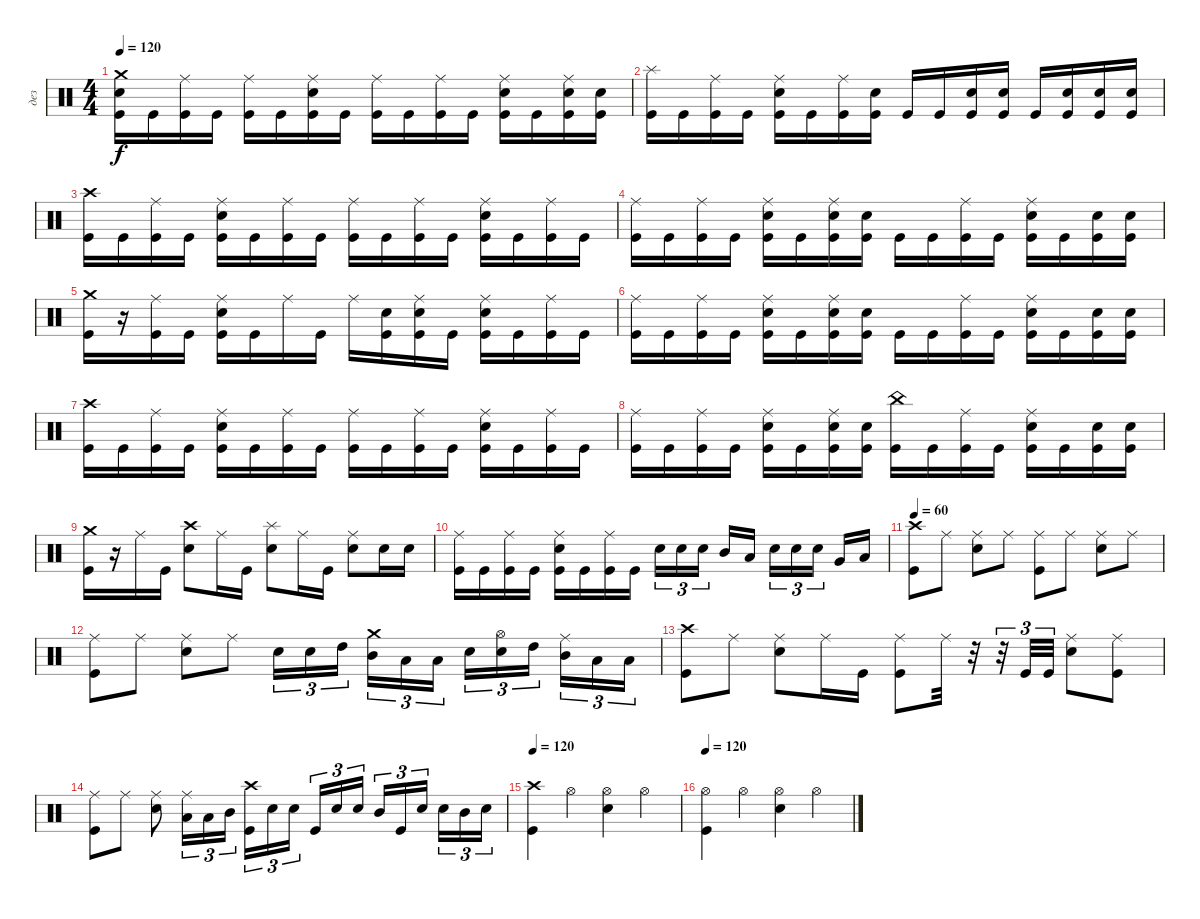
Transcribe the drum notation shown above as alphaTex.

\track ("дез" "дез") {instrument percussion}
\staff {score}
\articulation defaults
\ts (4 4)
\tempo 120
\clef neutral
\ks c
("Crash medium (hit)" "Electric Snare (hit)" "Kick (hit)").16{dy f} "Kick (hit)".16 ("Ride (middle)" "Kick (hit)").16 "Kick (hit)".16 ("Ride (middle)" "Kick (hit)").16 "Kick (hit)".16 ("Ride (middle)" "Electric Snare (hit)" "Kick (hit)").16 "Kick (hit)".16 ("Ride (middle)" "Kick (hit)").16 "Kick (hit)".16 ("Ride (middle)" "Kick (hit)").16 "Kick (hit)".16 ("Ride (middle)" "Electric Snare (hit)" "Kick (hit)").16 "Kick (hit)".16 ("Ride (middle)" "Electric Snare (hit)" "Kick (hit)").16 ("Electric Snare (hit)" "Kick (hit)").16 |
("Splash (hit)" "Kick (hit)").16 "Kick (hit)".16 ("Ride (middle)" "Kick (hit)").16 "Kick (hit)".16 ("Ride (middle)" "Electric Snare (hit)" "Kick (hit)").16 "Kick (hit)".16 ("Ride (middle)" "Kick (hit)").16 ("Electric Snare (hit)" "Kick (hit)").16 "Kick (hit)".16 "Kick (hit)".16 ("Electric Snare (hit)" "Kick (hit)").16 ("Electric Snare (hit)" "Kick (hit)").16 "Kick (hit)".16 ("Electric Snare (hit)" "Kick (hit)").16 ("Electric Snare (hit)" "Kick (hit)").16 ("Electric Snare (hit)" "Kick (hit)").16 |
("Crash high (hit)" "Kick (hit)").16 "Kick (hit)".16 ("Ride (middle)" "Kick (hit)").16 "Kick (hit)".16 ("Ride (middle)" "Electric Snare (hit)" "Kick (hit)").16 "Kick (hit)".16 ("Ride (middle)" "Kick (hit)").16 "Kick (hit)".16 ("Ride (middle)" "Kick (hit)").16 "Kick (hit)".16 ("Ride (middle)" "Kick (hit)").16 "Kick (hit)".16 ("Ride (middle)" "Electric Snare (hit)" "Kick (hit)").16 "Kick (hit)".16 ("Ride (middle)" "Kick (hit)").16 "Kick (hit)".16 |
("Ride (middle)" "Kick (hit)").16 "Kick (hit)".16 ("Ride (middle)" "Kick (hit)").16 "Kick (hit)".16 ("Ride (middle)" "Electric Snare (hit)" "Kick (hit)").16 "Kick (hit)".16 ("Ride (middle)" "Electric Snare (hit)" "Kick (hit)").16 ("Electric Snare (hit)" "Kick (hit)").16 "Kick (hit)".16 "Kick (hit)".16 ("Ride (middle)" "Kick (hit)").16 "Kick (hit)".16 ("Ride (middle)" "Electric Snare (hit)" "Kick (hit)").16 "Kick (hit)".16 ("Electric Snare (hit)" "Kick (hit)").16 ("Electric Snare (hit)" "Kick (hit)").16 |
("Crash medium (hit)" "Kick (hit)").16 r.16 ("Ride (middle)" "Kick (hit)").16 "Kick (hit)".16 ("Ride (middle)" "Electric Snare (hit)" "Kick (hit)").16 "Kick (hit)".16 "Ride (middle)".16 "Kick (hit)".16 "Ride (middle)".16 ("Electric Snare (hit)" "Kick (hit)").16 ("Ride (middle)" "Electric Snare (hit)" "Kick (hit)").16 "Kick (hit)".16 ("Ride (middle)" "Electric Snare (hit)" "Kick (hit)").16 "Kick (hit)".16 ("Ride (middle)" "Kick (hit)").16 "Kick (hit)".16 |
("Ride (middle)" "Kick (hit)").16 "Kick (hit)".16 ("Ride (middle)" "Kick (hit)").16 "Kick (hit)".16 ("Ride (middle)" "Electric Snare (hit)" "Kick (hit)").16 "Kick (hit)".16 ("Ride (middle)" "Electric Snare (hit)" "Kick (hit)").16 ("Electric Snare (hit)" "Kick (hit)").16 "Kick (hit)".16 "Kick (hit)".16 ("Ride (middle)" "Kick (hit)").16 "Kick (hit)".16 ("Ride (middle)" "Electric Snare (hit)" "Kick (hit)").16 "Kick (hit)".16 ("Electric Snare (hit)" "Kick (hit)").16 ("Electric Snare (hit)" "Kick (hit)").16 |
("Crash high (hit)" "Kick (hit)").16 "Kick (hit)".16 ("Ride (middle)" "Kick (hit)").16 "Kick (hit)".16 ("Ride (middle)" "Electric Snare (hit)" "Kick (hit)").16 "Kick (hit)".16 ("Ride (middle)" "Kick (hit)").16 "Kick (hit)".16 ("Ride (middle)" "Kick (hit)").16 "Kick (hit)".16 ("Ride (middle)" "Kick (hit)").16 "Kick (hit)".16 ("Ride (middle)" "Electric Snare (hit)" "Kick (hit)").16 "Kick (hit)".16 ("Ride (middle)" "Kick (hit)").16 "Kick (hit)".16 |
("Ride (middle)" "Kick (hit)").16 "Kick (hit)".16 ("Ride (middle)" "Kick (hit)").16 "Kick (hit)".16 ("Ride (middle)" "Electric Snare (hit)" "Kick (hit)").16 "Kick (hit)".16 ("Ride (middle)" "Electric Snare (hit)" "Kick (hit)").16 ("Electric Snare (hit)" "Kick (hit)").16 ("China (hit)" "Kick (hit)").16 "Kick (hit)".16 ("Ride (middle)" "Kick (hit)").16 "Kick (hit)".16 ("Ride (middle)" "Electric Snare (hit)" "Kick (hit)").16 "Kick (hit)".16 ("Electric Snare (hit)" "Kick (hit)").16 ("Electric Snare (hit)" "Kick (hit)").16 |
("Crash medium (hit)" "Kick (hit)").16 r.16 "Ride (middle)".16 "Kick (hit)".16 ("Crash high (hit)" "Electric Snare (hit)").8 "Ride (middle)".16 "Kick (hit)".16 ("Splash (hit)" "Electric Snare (hit)").8 "Ride (middle)".16 "Kick (hit)".16 ("Ride (middle)" "Electric Snare (hit)").8 "Electric Snare (hit)".16 "Electric Snare (hit)".16 |
("Ride (middle)" "Kick (hit)").16 "Kick (hit)".16 ("Ride (middle)" "Kick (hit)").16 "Kick (hit)".16 ("Ride (middle)" "Electric Snare (hit)" "Kick (hit)").16 "Kick (hit)".16 ("Ride (middle)" "Kick (hit)").16 "Kick (hit)".16 "Electric Snare (hit)".16{tu (3 2)} "Electric Snare (hit)".16{tu (3 2)} "Electric Snare (hit)".16{tu (3 2) beam splitsecondary} "Mid Tom (hit)".16 "Low Tom (hit)".16 "Electric Snare (hit)".16{tu (3 2)} "Electric Snare (hit)".16{tu (3 2)} "Electric Snare (hit)".16{tu (3 2) beam splitsecondary} "Very Low Tom (hit)".16 "Low Floor Tom (hit)".16 |
\tempo 60
("Crash high (hit)" "Kick (hit)").8 "Ride (middle)".8 ("Ride (middle)" "Electric Snare (hit)").8 "Ride (middle)".8 ("Ride (middle)" "Kick (hit)").8 "Ride (middle)".8 ("Ride (middle)" "Electric Snare (hit)").8 "Ride (middle)".8 |
("Ride (middle)" "Kick (hit)").8 "Ride (middle)".8 ("Ride (middle)" "Electric Snare (hit)").8 "Ride (middle)".8 "Electric Snare (hit)".16{tu (3 2)} "Electric Snare (hit)".16{tu (3 2)} "High Tom (hit)".16{tu (3 2) beam splitsecondary} ("Crash medium (hit)" "Mid Tom (hit)").16{tu (3 2)} "Low Floor Tom (hit)".16{tu (3 2)} "Low Tom (hit)".16{tu (3 2)} "Electric Snare (hit)".16{tu (3 2)} ("Hi-Hat (open)" "Electric Snare (hit)").16{tu (3 2)} "High Tom (hit)".16{tu (3 2) beam splitsecondary} ("Ride (middle)" "Mid Tom (hit)").16{tu (3 2)} "Low Tom (hit)".16{tu (3 2)} "Low Floor Tom (hit)".16{tu (3 2)} |
("Crash high (hit)" "Kick (hit)").8 "Ride (middle)".8 ("Ride (middle)" "Electric Snare (hit)").8 "Ride (middle)".16 "Kick (hit)".16 ("Ride (middle)" "Kick (hit)").8 "Ride (middle)".32 r.32 r.32{tu (3 2)} "Kick (hit)".32{tu (3 2)} "Kick (hit)".32{tu (3 2)} ("Ride (middle)" "Electric Snare (hit)").8 ("Ride (middle)" "Kick (hit)").8 |
("Ride (middle)" "Kick (hit)").8 "Ride (middle)".8 ("Ride (middle)" "Electric Snare (hit)").8 ("Ride (middle)" "Low Tom (hit)").16{tu (3 2)} "Low Tom (hit)".16{tu (3 2)} "Mid Tom (hit)".16{tu (3 2)} ("Crash high (hit)" "Kick (hit)").16{tu (3 2)} "Electric Snare (hit)".16{tu (3 2)} "Electric Snare (hit)".16{tu (3 2) beam splitsecondary} "Kick (hit)".16{tu (3 2)} "Electric Snare (hit)".16{tu (3 2)} "Electric Snare (hit)".16{tu (3 2)} "Mid Tom (hit)".16{tu (3 2)} "Kick (hit)".16{tu (3 2)} "Electric Snare (hit)".16{tu (3 2) beam splitsecondary} "Electric Snare (hit)".16{tu (3 2)} "Mid Tom (hit)".16{tu (3 2)} "Electric Snare (hit)".16{tu (3 2)} |
\tempo 120
("Crash high (hit)" "Kick (hit)").4 "Hi-Hat (open)".4 ("Hi-Hat (open)" "Electric Snare (hit)").4 "Hi-Hat (open)".4 |
\tempo 120
("Hi-Hat (open)" "Kick (hit)").4 "Hi-Hat (open)".4 ("Hi-Hat (open)" "Electric Snare (hit)").4 "Hi-Hat (open)".4
